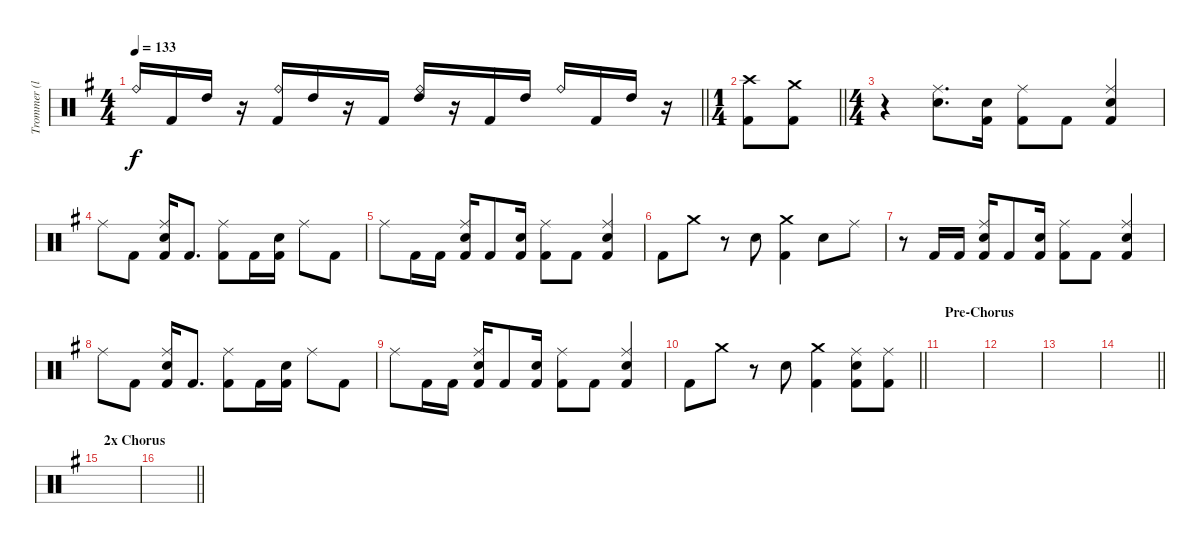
\track ("Trommer (lidt hjælp)" "Trommer (l") {instrument percussion}
\staff {score}
\articulation defaults
\ts (4 4)
\tempo 133
\clef neutral
\barLineRight lightlight
\ks eminor "Ride (bell)".16{dy f beam Up} "Kick (hit) 2".16{beam Up} "High Tom (hit)".16{beam Up}
r.16 ("Ride (bell)" "Kick (hit) 2").16{beam Up} "High Tom (hit)".16{beam Up} r.16 "Kick (hit) 2".16 ("Ride (bell)" "High Tom (hit)").16{beam Up} r.16 "Kick (hit) 2".16{beam Up} "High Tom (hit)".16{beam Up} "Ride (bell)".16{beam Up} "Kick (hit) 2".16{beam Up} "High Tom (hit)".16{beam Up} r.16 |
\ts (1 4)
\barLineRight lightlight
("Crash high (hit)" "Kick (hit) 2").8 ("Crash medium (hit)" "Kick (hit) 2").8 |
\ts (4 4)
r.4 ("Ride (middle)" "Electric Snare (hit)").8{d} ("Electric Snare (hit)" "Kick (hit) 2").16 ("Ride (middle)" "Kick (hit) 2").8 "Kick (hit) 2".8 ("Ride (middle)" "Electric Snare (hit)" "Kick (hit) 2").4 |
"Ride (middle)".8 "Kick (hit) 2".8 ("Ride (middle)" "Electric Snare (hit)" "Kick (hit) 2").16 "Kick (hit) 2".8{d} ("Ride (middle)" "Kick (hit) 2").8 "Kick (hit) 2".16 ("Electric Snare (hit)" "Kick (hit) 2").16 "Ride (middle)".8 "Kick (hit) 2".8 |
"Ride (middle)".8 "Kick (hit) 2".16 "Kick (hit) 2".16 ("Ride (middle)" "Electric Snare (hit)" "Kick (hit) 2").16 "Kick (hit) 2".8 ("Electric Snare (hit)" "Kick (hit) 2").16 ("Ride (middle)" "Kick (hit) 2").8 "Kick (hit) 2".8 ("Ride (middle)" "Electric Snare (hit)" "Kick (hit) 2").4 |
"Kick (hit) 2".8 "Crash medium (hit)".8 r.8 "Electric Snare (hit)".8 ("Crash medium (hit)" "Kick (hit) 2").4 "Electric Snare (hit)".8 "Ride (middle)".8 |
r.8 "Kick (hit) 2".16 "Kick (hit) 2".16 ("Ride (middle)" "Electric Snare (hit)" "Kick (hit) 2").16 "Kick (hit) 2".8 ("Electric Snare (hit)" "Kick (hit) 2").16 ("Ride (middle)" "Kick (hit) 2").8 "Kick (hit) 2".8 ("Ride (middle)" "Electric Snare (hit)" "Kick (hit) 2").4 |
"Ride (middle)".8 "Kick (hit) 2".8 ("Ride (middle)" "Electric Snare (hit)" "Kick (hit) 2").16 "Kick (hit) 2".8{d} ("Ride (middle)" "Kick (hit) 2").8 "Kick (hit) 2".16 ("Electric Snare (hit)" "Kick (hit) 2").16 "Ride (middle)".8 "Kick (hit) 2".8 |
"Ride (middle)".8 "Kick (hit) 2".16 "Kick (hit) 2".16 ("Ride (middle)" "Electric Snare (hit)" "Kick (hit) 2").16 "Kick (hit) 2".8 ("Electric Snare (hit)" "Kick (hit) 2").16 ("Ride (middle)" "Kick (hit) 2").8 "Kick (hit) 2".8 ("Ride (middle)" "Electric Snare (hit)" "Kick (hit) 2").4 |
\barLineRight lightlight "Kick (hit) 2".8 "Crash medium (hit)".8
r.8 "Electric Snare (hit)".8 ("Crash medium (hit)" "Kick (hit) 2").4 ("Ride (middle)" "Electric Snare (hit)" "Kick (hit) 2").8 ("Ride (middle)" "Kick (hit) 2").8 |
\section ("" "Pre-Chorus")
|
|
|
\barLineRight lightlight
|
\section ("" "2x Chorus")
|
\barLineRight lightlight
